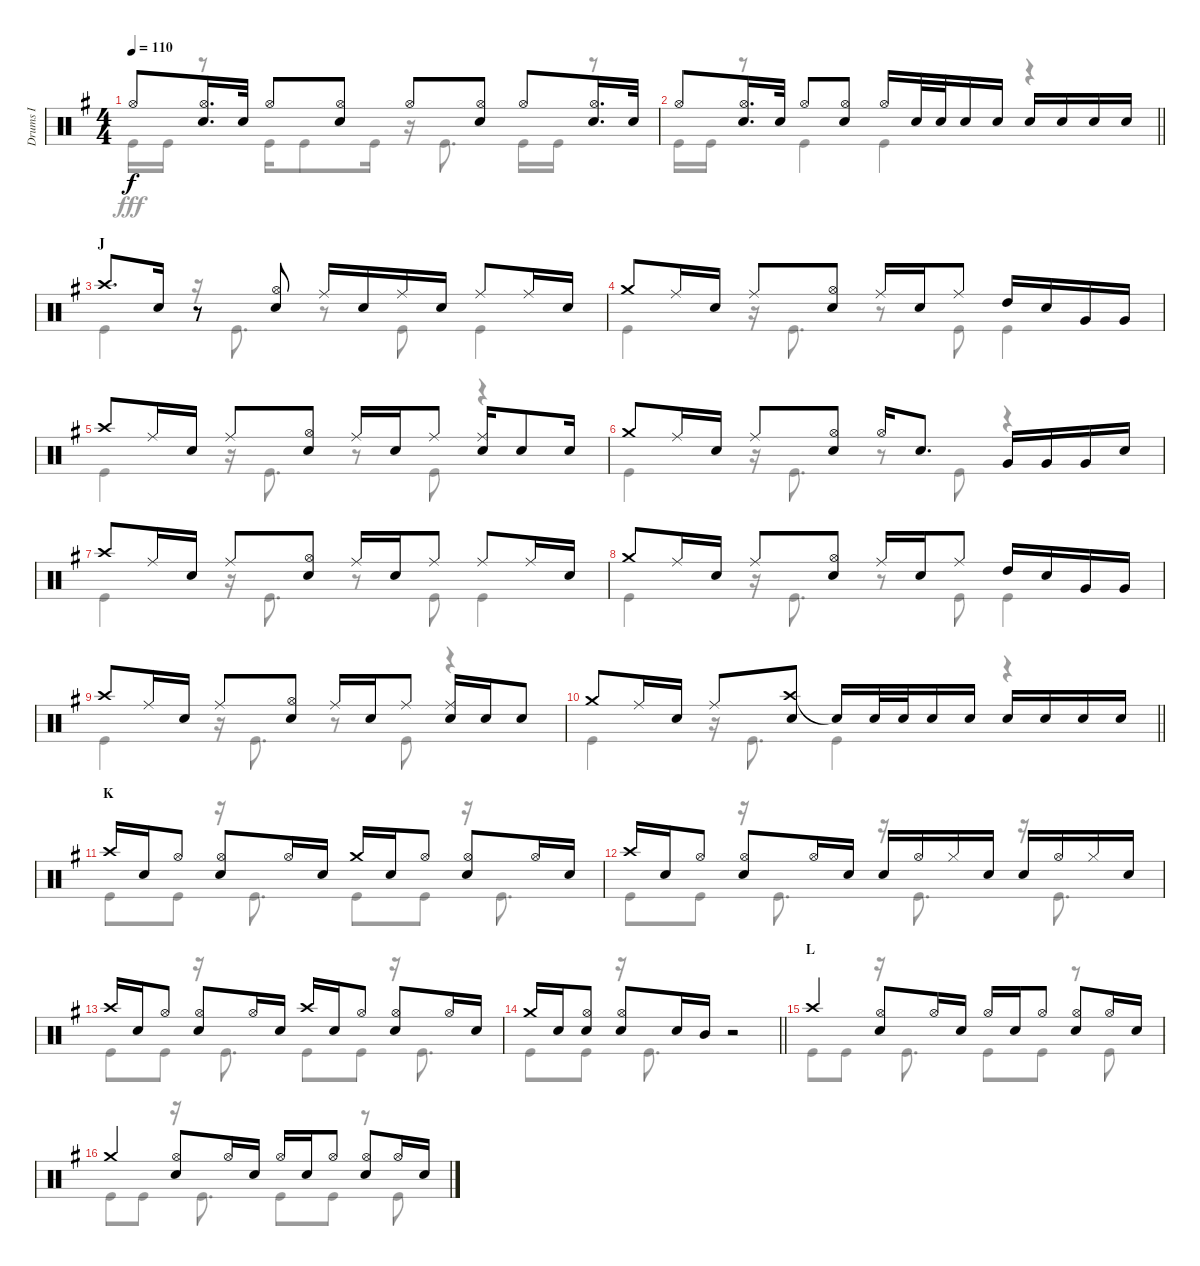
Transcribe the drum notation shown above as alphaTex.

\track ("Drums I" "Drums I") {instrument percussion}
\staff {score}
\articulation defaults
\voice
\ts (4 4)
\tempo 110
\clef neutral
\ks g "Hi-Hat (open)".8{dy f}
("Hi-Hat (open)" "Snare (hit) 2").16{d} "Snare (hit) 2".32 "Hi-Hat (open)".8 ("Hi-Hat (open)" "Snare (hit) 2").8 "Hi-Hat (open)".8 ("Hi-Hat (open)" "Snare (hit) 2").8 "Hi-Hat (open)".8 ("Hi-Hat (open)" "Snare (hit) 2").16{d} "Snare (hit) 2".32 |
\barLineRight lightlight "Hi-Hat (open)".8
("Hi-Hat (open)" "Snare (hit) 2").16{d} "Snare (hit) 2".32 "Hi-Hat (open)".8 ("Hi-Hat (open)" "Snare (hit) 2").8 "Hi-Hat (open)".16 "Snare (hit) 2".32 "Snare (hit) 2".32 "Snare (hit) 2".16 "Snare (hit) 2".16 "Snare (hit) 2".16 "Snare (hit) 2".16 "Snare (hit) 2".16 "Snare (hit) 2".16 |
\section ("" "J")
"Crash high (hit)".8{d} "Snare (hit) 2".16 r.8 ("Hi-Hat (open)" "Snare (hit) 2").8 "Ride (middle)".16 "Snare (hit) 2".16 "Ride (middle)".16 "Snare (hit) 2".16 "Ride (middle)".8 "Ride (middle)".16 "Snare (hit) 2".16 |
"Crash medium (hit)".8 "Ride (middle)".16 "Snare (hit) 2".16 "Ride (middle)".8 ("Hi-Hat (open)" "Snare (hit) 2").8 "Ride (middle)".16 "Snare (hit) 2".16 "Ride (middle)".8 "High Tom (hit)".16 "Snare (hit) 2".16 "Very Low Tom (hit)".16 "Very Low Tom (hit)".16 |
"Crash high (hit)".8 "Ride (middle)".16 "Snare (hit) 2".16 "Ride (middle)".8 ("Hi-Hat (open)" "Snare (hit) 2").8 "Ride (middle)".16 "Snare (hit) 2".16 "Ride (middle)".8 ("Ride (middle)" "Snare (hit) 2").16 "Snare (hit) 2".8 "Snare (hit) 2".16 |
"Crash medium (hit)".8 "Ride (middle)".16 "Snare (hit) 2".16 "Ride (middle)".8 ("Hi-Hat (open)" "Snare (hit) 2").8 "Hi-Hat (open)".16 "Snare (hit) 2".8{d} "Very Low Tom (hit)".16 "Very Low Tom (hit)".16 "Very Low Tom (hit)".16 "Snare (hit) 2".16 |
"Crash high (hit)".8 "Ride (middle)".16 "Snare (hit) 2".16 "Ride (middle)".8 ("Hi-Hat (open)" "Snare (hit) 2").8 "Ride (middle)".16 "Snare (hit) 2".16 "Ride (middle)".8 "Ride (middle)".8 "Ride (middle)".16 "Snare (hit) 2".16 |
"Crash medium (hit)".8 "Ride (middle)".16 "Snare (hit) 2".16 "Ride (middle)".8 ("Hi-Hat (open)" "Snare (hit) 2").8 "Ride (middle)".16 "Snare (hit) 2".16 "Ride (middle)".8 "High Tom (hit)".16 "Snare (hit) 2".16 "Very Low Tom (hit)".16 "Very Low Tom (hit)".16 |
"Crash high (hit)".8 "Ride (middle)".16 "Snare (hit) 2".16 "Ride (middle)".8 ("Hi-Hat (open)" "Snare (hit) 2").8 "Ride (middle)".16 "Snare (hit) 2".16 "Ride (middle)".8 ("Ride (middle)" "Snare (hit) 2").16 "Snare (hit) 2".16 "Snare (hit) 2".8 |
\barLineRight lightlight "Crash medium (hit)".8 "Ride (middle)".16 "Snare (hit) 2".16 "Ride (middle)".8
("Crash high (hit)" "Snare (hit) 2").8 "Snare (hit)"{t}.16 "Snare (hit) 2".32 "Snare (hit) 2".32 "Snare (hit) 2".16 "Snare (hit) 2".16 "Snare (hit) 2".16 "Snare (hit) 2".16 "Snare (hit) 2".16 "Snare (hit) 2".16 |
\section ("" "K")
"Crash high (hit)".16 "Snare (hit) 2".16 "Hi-Hat (open)".8 ("Hi-Hat (open)" "Snare (hit) 2").8 "Hi-Hat (open)".16 "Snare (hit) 2".16 "Crash medium (hit)".16 "Snare (hit) 2".16 "Hi-Hat (open)".8 ("Hi-Hat (open)" "Snare (hit) 2").8 "Hi-Hat (open)".16 "Snare (hit) 2".16 |
"Crash high (hit)".16 "Snare (hit) 2".16 "Hi-Hat (open)".8 ("Hi-Hat (open)" "Snare (hit) 2").8 "Hi-Hat (open)".16 "Snare (hit) 2".16 "Snare (hit) 2".16 "Hi-Hat (open)".16 "Hi-Hat (closed)".16 "Snare (hit) 2".16 "Snare (hit) 2".16 "Hi-Hat (open)".16 "Hi-Hat (closed)".16 "Snare (hit) 2".16 |
"Crash high (hit)".16 "Snare (hit) 2".16 "Hi-Hat (open)".8 ("Hi-Hat (open)" "Snare (hit) 2").8 "Hi-Hat (open)".16 "Snare (hit) 2".16 "Crash high (hit)".16 "Snare (hit) 2".16 "Hi-Hat (open)".8 ("Hi-Hat (open)" "Snare (hit) 2").8 "Hi-Hat (open)".16 "Snare (hit) 2".16 |
\barLineRight lightlight "Crash medium (hit)".16 "Snare (hit) 2".16
("Hi-Hat (open)" "Snare (hit) 2").8 ("Hi-Hat (open)" "Snare (hit) 2").8 "Snare (hit) 2".16 "Mid Tom (hit)".16 r.2 |
\section ("" "L")
"Crash high (hit)".4 ("Hi-Hat (open)" "Snare (hit) 2").8 "Hi-Hat (open)".16 "Snare (hit) 2".16 "Hi-Hat (open)".16 "Snare (hit) 2".16 "Hi-Hat (open)".8 ("Hi-Hat (open)" "Snare (hit) 2").8 "Hi-Hat (open)".16 "Snare (hit) 2".16 |
"Crash medium (hit)".4 ("Hi-Hat (open)" "Snare (hit) 2").8 "Hi-Hat (open)".16 "Snare (hit) 2".16 "Hi-Hat (open)".16 "Snare (hit) 2".16 "Hi-Hat (open)".8 ("Hi-Hat (open)" "Snare (hit) 2").8 "Hi-Hat (open)".16 "Snare (hit) 2".16
\voice
\clef neutral
\ottava regular
\simile none
\ks g "Kick (hit)".16{dy fff} "Kick (hit)".16
r.8 "Kick (hit)".16 "Kick (hit)".8 "Kick (hit)".16 r.16 "Kick (hit)".8{d} "Kick (hit)".16 "Kick (hit)".16 r.8 |
\barLineRight lightlight "Kick (hit)".16 "Kick (hit)".16
r.8 "Kick (hit)".4 "Kick (hit)".4 r.4 |
"Kick (hit)".4 r.16 "Kick (hit)".8{d} r.8 "Kick (hit)".8 "Kick (hit)".4 |
"Kick (hit)".4 r.16 "Kick (hit)".8{d} r.8 "Kick (hit)".8 "Kick (hit)".4 |
"Kick (hit)".4 r.16 "Kick (hit)".8{d} r.8 "Kick (hit)".8 r.4 |
"Kick (hit)".4 r.16 "Kick (hit)".8{d} r.8 "Kick (hit)".8 r.4 |
"Kick (hit)".4 r.16 "Kick (hit)".8{d} r.8 "Kick (hit)".8 "Kick (hit)".4 |
"Kick (hit)".4 r.16 "Kick (hit)".8{d} r.8 "Kick (hit)".8 "Kick (hit)".4 |
"Kick (hit)".4 r.16 "Kick (hit)".8{d} r.8 "Kick (hit)".8 r.4 |
\barLineRight lightlight "Kick (hit)".4
r.16 "Kick (hit)".8{d} "Kick (hit)".4 r.4 |
"Kick (hit)".8 "Kick (hit)".8 r.16 "Kick (hit)".8{d} "Kick (hit)".8 "Kick (hit)".8 r.16 "Kick (hit)".8{d} |
"Kick (hit)".8 "Kick (hit)".8 r.16 "Kick (hit)".8{d} r.16 "Kick (hit)".8{d} r.16 "Kick (hit)".8{d} |
"Kick (hit)".8 "Kick (hit)".8 r.16 "Kick (hit)".8{d} "Kick (hit)".8 "Kick (hit)".8 r.16 "Kick (hit)".8{d} |
\barLineRight lightlight "Kick (hit)".8 "Kick (hit)".8
r.16 "Kick (hit)".8{d} r.2 |
"Kick (hit)".8 "Kick (hit)".8 r.16 "Kick (hit)".8{d} "Kick (hit)".8 "Kick (hit)".8 r.8 "Kick (hit)".8 |
"Kick (hit)".8 "Kick (hit)".8 r.16 "Kick (hit)".8{d} "Kick (hit)".8 "Kick (hit)".8 r.8 "Kick (hit)".8
